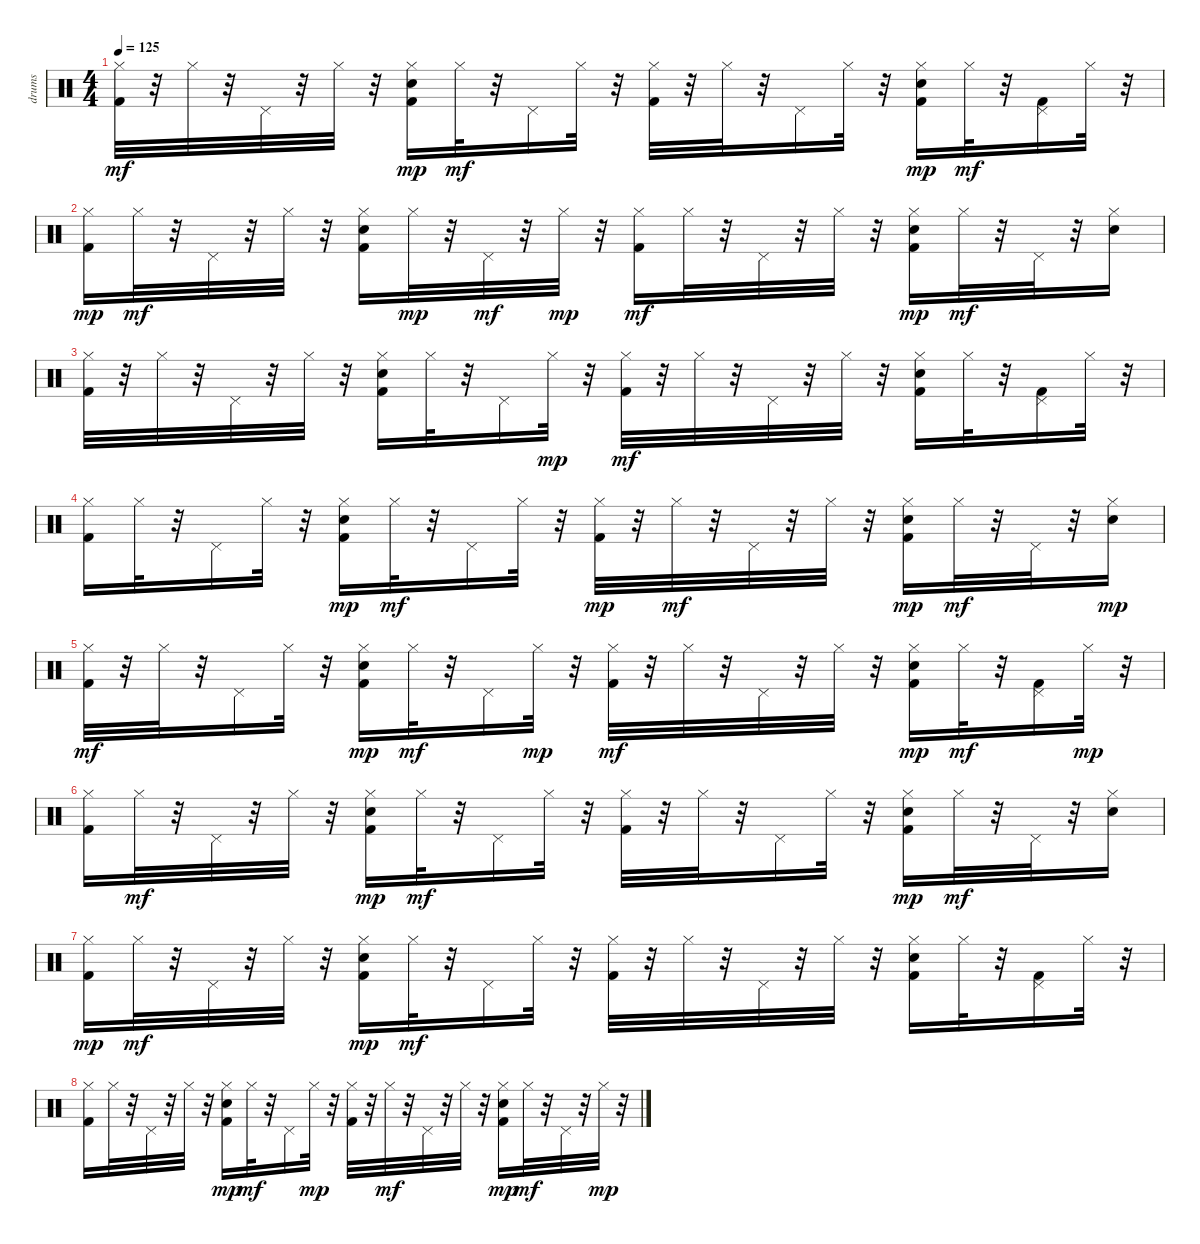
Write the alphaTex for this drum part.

\track ("drums   " "drums   ") {instrument percussion}
\staff {score}
\articulation defaults
\ts (4 4)
\tempo 125
\clef neutral
\ks c
("Kick (hit) 2" "Hi-Hat (closed)").32{dy mf} r.32 "Hi-Hat (closed)".32 r.32 "Pedal Hi-Hat (hit)".32 r.32 "Hi-Hat (closed)".32 r.32 ("Kick (hit) 2" "Snare (hit) 2" "Hi-Hat (closed)").16{dy mp} "Hi-Hat (closed)".32{dy mf} r.32 "Pedal Hi-Hat (hit)".16 "Hi-Hat (closed)".32 r.32 ("Kick (hit) 2" "Hi-Hat (closed)").32 r.32 "Hi-Hat (closed)".32 r.32 "Pedal Hi-Hat (hit)".16 "Hi-Hat (closed)".32 r.32 ("Kick (hit) 2" "Snare (hit) 2" "Hi-Hat (closed)").16{dy mp} "Hi-Hat (closed)".32{dy mf} r.32 ("Kick (hit) 2" "Pedal Hi-Hat (hit)").16 "Hi-Hat (closed)".32 r.32 |
("Kick (hit) 2" "Hi-Hat (closed)").16{dy mp} "Hi-Hat (closed)".32{dy mf} r.32 "Pedal Hi-Hat (hit)".32 r.32 "Hi-Hat (closed)".32 r.32 ("Kick (hit) 2" "Snare (hit) 2" "Hi-Hat (closed)").16 "Hi-Hat (closed)".32{dy mp} r.32 "Pedal Hi-Hat (hit)".32{dy mf} r.32 "Hi-Hat (closed)".32{dy mp} r.32 ("Kick (hit) 2" "Hi-Hat (closed)").16{dy mf} "Hi-Hat (closed)".32 r.32 "Pedal Hi-Hat (hit)".32 r.32 "Hi-Hat (closed)".32 r.32 ("Kick (hit) 2" "Snare (hit) 2" "Hi-Hat (closed)").16{dy mp} "Hi-Hat (closed)".32{dy mf} r.32 "Pedal Hi-Hat (hit)".32 r.32 ("Snare (hit) 2" "Hi-Hat (closed)").16 |
("Kick (hit) 2" "Hi-Hat (closed)").32 r.32 "Hi-Hat (closed)".32 r.32 "Pedal Hi-Hat (hit)".32 r.32 "Hi-Hat (closed)".32 r.32 ("Kick (hit) 2" "Snare (hit) 2" "Hi-Hat (closed)").16 "Hi-Hat (closed)".32 r.32 "Pedal Hi-Hat (hit)".16 "Hi-Hat (closed)".32{dy mp} r.32 ("Kick (hit) 2" "Hi-Hat (closed)").32{dy mf} r.32 "Hi-Hat (closed)".32 r.32 "Pedal Hi-Hat (hit)".32 r.32 "Hi-Hat (closed)".32 r.32 ("Kick (hit) 2" "Snare (hit) 2" "Hi-Hat (closed)").16 "Hi-Hat (closed)".32 r.32 ("Kick (hit) 2" "Pedal Hi-Hat (hit)").16 "Hi-Hat (closed)".32 r.32 |
("Kick (hit) 2" "Hi-Hat (closed)").16 "Hi-Hat (closed)".32 r.32 "Pedal Hi-Hat (hit)".16 "Hi-Hat (closed)".32 r.32 ("Kick (hit) 2" "Snare (hit) 2" "Hi-Hat (closed)").16{dy mp} "Hi-Hat (closed)".32{dy mf} r.32 "Pedal Hi-Hat (hit)".16 "Hi-Hat (closed)".32 r.32 ("Kick (hit) 2" "Hi-Hat (closed)").32{dy mp} r.32 "Hi-Hat (closed)".32{dy mf} r.32 "Pedal Hi-Hat (hit)".32 r.32 "Hi-Hat (closed)".32 r.32 ("Kick (hit) 2" "Snare (hit) 2" "Hi-Hat (closed)").16{dy mp} "Hi-Hat (closed)".32{dy mf} r.32 "Pedal Hi-Hat (hit)".32 r.32 ("Snare (hit) 2" "Hi-Hat (closed)").16{dy mp} |
("Kick (hit) 2" "Hi-Hat (closed)").32{dy mf} r.32 "Hi-Hat (closed)".32 r.32 "Pedal Hi-Hat (hit)".16 "Hi-Hat (closed)".32 r.32 ("Kick (hit) 2" "Snare (hit) 2" "Hi-Hat (closed)").16{dy mp} "Hi-Hat (closed)".32{dy mf} r.32 "Pedal Hi-Hat (hit)".16 "Hi-Hat (closed)".32{dy mp} r.32 ("Kick (hit) 2" "Hi-Hat (closed)").32{dy mf} r.32 "Hi-Hat (closed)".32 r.32 "Pedal Hi-Hat (hit)".32 r.32 "Hi-Hat (closed)".32 r.32 ("Kick (hit) 2" "Snare (hit) 2" "Hi-Hat (closed)").16{dy mp} "Hi-Hat (closed)".32{dy mf} r.32 ("Kick (hit) 2" "Pedal Hi-Hat (hit)").16 "Hi-Hat (closed)".32{dy mp} r.32 |
("Kick (hit) 2" "Hi-Hat (closed)").16 "Hi-Hat (closed)".32{dy mf} r.32 "Pedal Hi-Hat (hit)".32 r.32 "Hi-Hat (closed)".32 r.32 ("Kick (hit) 2" "Snare (hit) 2" "Hi-Hat (closed)").16{dy mp} "Hi-Hat (closed)".32{dy mf} r.32 "Pedal Hi-Hat (hit)".16 "Hi-Hat (closed)".32 r.32 ("Kick (hit) 2" "Hi-Hat (closed)").32 r.32 "Hi-Hat (closed)".32 r.32 "Pedal Hi-Hat (hit)".16 "Hi-Hat (closed)".32 r.32 ("Kick (hit) 2" "Snare (hit) 2" "Hi-Hat (closed)").16{dy mp} "Hi-Hat (closed)".32{dy mf} r.32 "Pedal Hi-Hat (hit)".32 r.32 ("Snare (hit) 2" "Hi-Hat (closed)").16 |
("Kick (hit) 2" "Hi-Hat (closed)").16{dy mp} "Hi-Hat (closed)".32{dy mf} r.32 "Pedal Hi-Hat (hit)".32 r.32 "Hi-Hat (closed)".32 r.32 ("Kick (hit) 2" "Snare (hit) 2" "Hi-Hat (closed)").16{dy mp} "Hi-Hat (closed)".32{dy mf} r.32 "Pedal Hi-Hat (hit)".16 "Hi-Hat (closed)".32 r.32 ("Kick (hit) 2" "Hi-Hat (closed)").32 r.32 "Hi-Hat (closed)".32 r.32 "Pedal Hi-Hat (hit)".32 r.32 "Hi-Hat (closed)".32 r.32 ("Kick (hit) 2" "Snare (hit) 2" "Hi-Hat (closed)").16 "Hi-Hat (closed)".32 r.32 ("Kick (hit) 2" "Pedal Hi-Hat (hit)").16 "Hi-Hat (closed)".32 r.32 |
("Kick (hit) 2" "Hi-Hat (closed)").16 "Hi-Hat (closed)".32 r.32 "Pedal Hi-Hat (hit)".32 r.32 "Hi-Hat (closed)".32 r.32 ("Kick (hit) 2" "Snare (hit) 2" "Hi-Hat (closed)").16{dy mp} "Hi-Hat (closed)".32{dy mf} r.32 "Pedal Hi-Hat (hit)".16 "Hi-Hat (closed)".32{dy mp} r.32 ("Kick (hit) 2" "Hi-Hat (closed)").32 r.32 "Hi-Hat (closed)".32{dy mf} r.32 "Pedal Hi-Hat (hit)".32 r.32 "Hi-Hat (closed)".32 r.32 ("Kick (hit) 2" "Snare (hit) 2" "Hi-Hat (closed)").16{dy mp} "Hi-Hat (closed)".32{dy mf} r.32 "Pedal Hi-Hat (hit)".32 r.32 "Hi-Hat (closed)".32{dy mp} r.32
